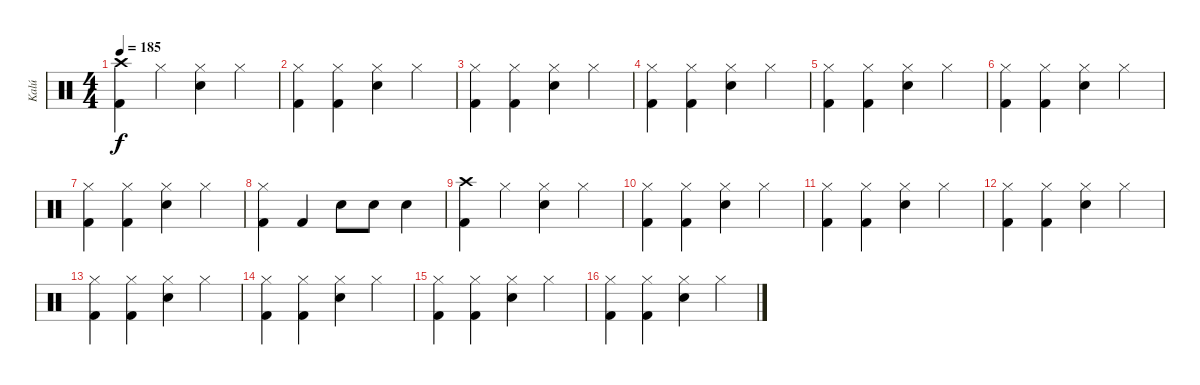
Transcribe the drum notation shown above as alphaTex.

\track ("Kalú" "Kalú") {instrument percussion}
\staff {score}
\articulation defaults
\ts (4 4)
\tempo 185
\clef neutral
\ks c
("Crash high (hit)" "Kick (hit) 2").4{dy f} "Hi-Hat (closed)".4 ("Hi-Hat (closed)" "Snare (hit) 2").4 "Hi-Hat (closed)".4 |
("Hi-Hat (closed)" "Kick (hit) 2").4 ("Hi-Hat (closed)" "Kick (hit) 2").4 ("Hi-Hat (closed)" "Snare (hit) 2").4 "Hi-Hat (closed)".4 |
("Hi-Hat (closed)" "Kick (hit) 2").4 ("Hi-Hat (closed)" "Kick (hit) 2").4 ("Hi-Hat (closed)" "Snare (hit) 2").4 "Hi-Hat (closed)".4 |
("Hi-Hat (closed)" "Kick (hit) 2").4 ("Hi-Hat (closed)" "Kick (hit) 2").4 ("Hi-Hat (closed)" "Snare (hit) 2").4 "Hi-Hat (closed)".4 |
("Hi-Hat (closed)" "Kick (hit) 2").4 ("Hi-Hat (closed)" "Kick (hit) 2").4 ("Hi-Hat (closed)" "Snare (hit) 2").4 "Hi-Hat (closed)".4 |
("Hi-Hat (closed)" "Kick (hit) 2").4 ("Hi-Hat (closed)" "Kick (hit) 2").4 ("Hi-Hat (closed)" "Snare (hit) 2").4 "Hi-Hat (closed)".4 |
("Hi-Hat (closed)" "Kick (hit) 2").4 ("Hi-Hat (closed)" "Kick (hit) 2").4 ("Hi-Hat (closed)" "Snare (hit) 2").4 "Hi-Hat (closed)".4 |
("Hi-Hat (closed)" "Kick (hit) 2").4 "Kick (hit) 2".4 "Snare (hit) 2".8 "Snare (hit) 2".8 "Snare (hit) 2".4 |
("Crash high (hit)" "Kick (hit) 2").4 "Hi-Hat (closed)".4 ("Hi-Hat (closed)" "Snare (hit) 2").4 "Hi-Hat (closed)".4 |
("Hi-Hat (closed)" "Kick (hit) 2").4 ("Hi-Hat (closed)" "Kick (hit) 2").4 ("Hi-Hat (closed)" "Snare (hit) 2").4 "Hi-Hat (closed)".4 |
("Hi-Hat (closed)" "Kick (hit) 2").4 ("Hi-Hat (closed)" "Kick (hit) 2").4 ("Hi-Hat (closed)" "Snare (hit) 2").4 "Hi-Hat (closed)".4 |
("Hi-Hat (closed)" "Kick (hit) 2").4 ("Hi-Hat (closed)" "Kick (hit) 2").4 ("Hi-Hat (closed)" "Snare (hit) 2").4 "Hi-Hat (closed)".4 |
("Hi-Hat (closed)" "Kick (hit) 2").4 ("Hi-Hat (closed)" "Kick (hit) 2").4 ("Hi-Hat (closed)" "Snare (hit) 2").4 "Hi-Hat (closed)".4 |
("Hi-Hat (closed)" "Kick (hit) 2").4 ("Hi-Hat (closed)" "Kick (hit) 2").4 ("Hi-Hat (closed)" "Snare (hit) 2").4 "Hi-Hat (closed)".4 |
("Hi-Hat (closed)" "Kick (hit) 2").4 ("Hi-Hat (closed)" "Kick (hit) 2").4 ("Hi-Hat (closed)" "Snare (hit) 2").4 "Hi-Hat (closed)".4 |
("Hi-Hat (closed)" "Kick (hit) 2").4 ("Hi-Hat (closed)" "Kick (hit) 2").4 ("Hi-Hat (closed)" "Snare (hit) 2").4 "Hi-Hat (closed)".4
